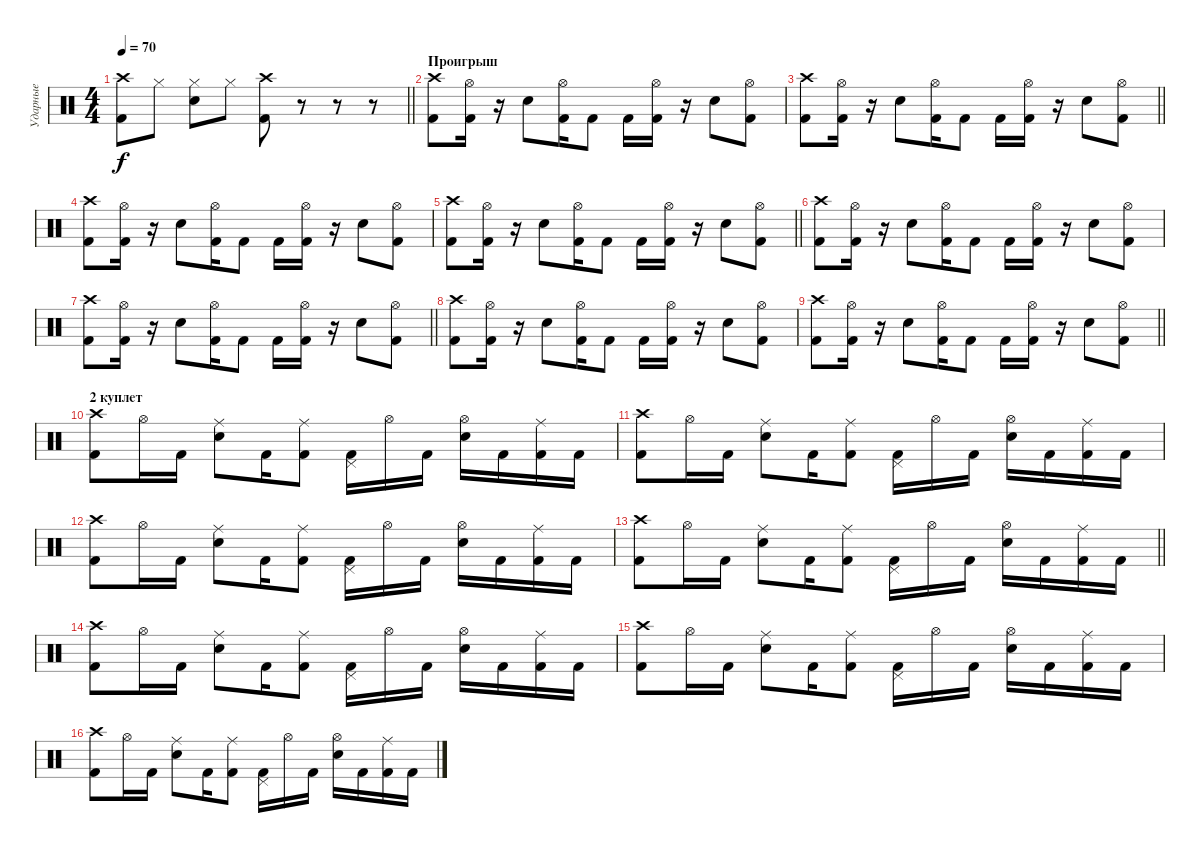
\track ("Ударные" "Ударные") {instrument percussion}
\staff {score}
\articulation defaults
\ts (4 4)
\tempo 70
\clef neutral
\barLineRight lightlight
\ks c
("Crash high (hit)" "Kick (hit) 2").8{dy f} "Hi-Hat (closed)".8 ("Hi-Hat (closed)" "Snare (hit) 2").8 "Hi-Hat (closed)".8 ("Crash high (hit)" "Kick (hit) 2").8 r.8 r.8 r.8 |
\section ("" "Проигрыш")
("Kick (hit) 2" "Crash high (hit)").8 ("Kick (hit) 2" "Hi-Hat (open)").16 r.16 "Snare (hit) 2".8 ("Kick (hit) 2" "Hi-Hat (open)").16 "Kick (hit) 2".8 "Kick (hit) 2".16 ("Kick (hit) 2" "Hi-Hat (open)").16 r.16 "Snare (hit) 2".8 ("Kick (hit) 2" "Hi-Hat (open)").8 |
\barLineRight lightlight
("Kick (hit) 2" "Crash high (hit)").8 ("Kick (hit) 2" "Hi-Hat (open)").16 r.16 "Snare (hit) 2".8 ("Kick (hit) 2" "Hi-Hat (open)").16 "Kick (hit) 2".8 "Kick (hit) 2".16 ("Kick (hit) 2" "Hi-Hat (open)").16 r.16 "Snare (hit) 2".8 ("Kick (hit) 2" "Hi-Hat (open)").8 |
("Kick (hit) 2" "Crash high (hit)").8 ("Kick (hit) 2" "Hi-Hat (open)").16 r.16 "Snare (hit) 2".8 ("Kick (hit) 2" "Hi-Hat (open)").16 "Kick (hit) 2".8 "Kick (hit) 2".16 ("Kick (hit) 2" "Hi-Hat (open)").16 r.16 "Snare (hit) 2".8 ("Kick (hit) 2" "Hi-Hat (open)").8 |
\barLineRight lightlight
("Kick (hit) 2" "Crash high (hit)").8 ("Kick (hit) 2" "Hi-Hat (open)").16 r.16 "Snare (hit) 2".8 ("Kick (hit) 2" "Hi-Hat (open)").16 "Kick (hit) 2".8 "Kick (hit) 2".16 ("Kick (hit) 2" "Hi-Hat (open)").16 r.16 "Snare (hit) 2".8 ("Kick (hit) 2" "Hi-Hat (open)").8 |
("Kick (hit) 2" "Crash high (hit)").8 ("Kick (hit) 2" "Hi-Hat (open)").16 r.16 "Snare (hit) 2".8 ("Kick (hit) 2" "Hi-Hat (open)").16 "Kick (hit) 2".8 "Kick (hit) 2".16 ("Kick (hit) 2" "Hi-Hat (open)").16 r.16 "Snare (hit) 2".8 ("Kick (hit) 2" "Hi-Hat (open)").8 |
\barLineRight lightlight
("Kick (hit) 2" "Crash high (hit)").8 ("Kick (hit) 2" "Hi-Hat (open)").16 r.16 "Snare (hit) 2".8 ("Kick (hit) 2" "Hi-Hat (open)").16 "Kick (hit) 2".8 "Kick (hit) 2".16 ("Kick (hit) 2" "Hi-Hat (open)").16 r.16 "Snare (hit) 2".8 ("Kick (hit) 2" "Hi-Hat (open)").8 |
("Kick (hit) 2" "Crash high (hit)").8 ("Kick (hit) 2" "Hi-Hat (open)").16 r.16 "Snare (hit) 2".8 ("Kick (hit) 2" "Hi-Hat (open)").16 "Kick (hit) 2".8 "Kick (hit) 2".16 ("Kick (hit) 2" "Hi-Hat (open)").16 r.16 "Snare (hit) 2".8 ("Kick (hit) 2" "Hi-Hat (open)").8 |
\barLineRight lightlight
("Kick (hit) 2" "Crash high (hit)").8 ("Kick (hit) 2" "Hi-Hat (open)").16 r.16 "Snare (hit) 2".8 ("Kick (hit) 2" "Hi-Hat (open)").16 "Kick (hit) 2".8 "Kick (hit) 2".16 ("Kick (hit) 2" "Hi-Hat (open)").16 r.16 "Snare (hit) 2".8 ("Kick (hit) 2" "Hi-Hat (open)").8 |
\section ("" "2 куплет")
("Kick (hit) 2" "Crash high (hit)").8 "Hi-Hat (open)".16 "Kick (hit) 2".16 ("Snare (hit) 2" "Ride (middle)").8 "Kick (hit) 2".16 ("Kick (hit) 2" "Ride (middle)").8 ("Kick (hit) 2" "Pedal Hi-Hat (hit)").16 "Hi-Hat (open)".16 "Kick (hit) 2".16 ("Snare (hit) 2" "Hi-Hat (open)").16 "Kick (hit) 2".16 ("Kick (hit) 2" "Ride (middle)").16 "Kick (hit) 2".16 |
("Kick (hit) 2" "Crash high (hit)").8 "Hi-Hat (open)".16 "Kick (hit) 2".16 ("Snare (hit) 2" "Ride (middle)").8 "Kick (hit) 2".16 ("Kick (hit) 2" "Ride (middle)").8 ("Kick (hit) 2" "Pedal Hi-Hat (hit)").16 "Hi-Hat (open)".16 "Kick (hit) 2".16 ("Snare (hit) 2" "Hi-Hat (open)").16 "Kick (hit) 2".16 ("Kick (hit) 2" "Ride (middle)").16 "Kick (hit) 2".16 |
("Kick (hit) 2" "Crash high (hit)").8 "Hi-Hat (open)".16 "Kick (hit) 2".16 ("Snare (hit) 2" "Ride (middle)").8 "Kick (hit) 2".16 ("Kick (hit) 2" "Ride (middle)").8 ("Kick (hit) 2" "Pedal Hi-Hat (hit)").16 "Hi-Hat (open)".16 "Kick (hit) 2".16 ("Snare (hit) 2" "Hi-Hat (open)").16 "Kick (hit) 2".16 ("Kick (hit) 2" "Ride (middle)").16 "Kick (hit) 2".16 |
\barLineRight lightlight
("Kick (hit) 2" "Crash high (hit)").8 "Hi-Hat (open)".16 "Kick (hit) 2".16 ("Snare (hit) 2" "Ride (middle)").8 "Kick (hit) 2".16 ("Kick (hit) 2" "Ride (middle)").8 ("Kick (hit) 2" "Pedal Hi-Hat (hit)").16 "Hi-Hat (open)".16 "Kick (hit) 2".16 ("Snare (hit) 2" "Hi-Hat (open)").16 "Kick (hit) 2".16 ("Kick (hit) 2" "Ride (middle)").16 "Kick (hit) 2".16 |
("Kick (hit) 2" "Crash high (hit)").8 "Hi-Hat (open)".16 "Kick (hit) 2".16 ("Snare (hit) 2" "Ride (middle)").8 "Kick (hit) 2".16 ("Kick (hit) 2" "Ride (middle)").8 ("Kick (hit) 2" "Pedal Hi-Hat (hit)").16 "Hi-Hat (open)".16 "Kick (hit) 2".16 ("Snare (hit) 2" "Hi-Hat (open)").16 "Kick (hit) 2".16 ("Kick (hit) 2" "Ride (middle)").16 "Kick (hit) 2".16 |
("Kick (hit) 2" "Crash high (hit)").8 "Hi-Hat (open)".16 "Kick (hit) 2".16 ("Snare (hit) 2" "Ride (middle)").8 "Kick (hit) 2".16 ("Kick (hit) 2" "Ride (middle)").8 ("Kick (hit) 2" "Pedal Hi-Hat (hit)").16 "Hi-Hat (open)".16 "Kick (hit) 2".16 ("Snare (hit) 2" "Hi-Hat (open)").16 "Kick (hit) 2".16 ("Kick (hit) 2" "Ride (middle)").16 "Kick (hit) 2".16 |
("Kick (hit) 2" "Crash high (hit)").8 "Hi-Hat (open)".16 "Kick (hit) 2".16 ("Snare (hit) 2" "Ride (middle)").8 "Kick (hit) 2".16 ("Kick (hit) 2" "Ride (middle)").8 ("Kick (hit) 2" "Pedal Hi-Hat (hit)").16 "Hi-Hat (open)".16 "Kick (hit) 2".16 ("Snare (hit) 2" "Hi-Hat (open)").16 "Kick (hit) 2".16 ("Kick (hit) 2" "Ride (middle)").16 "Kick (hit) 2".16
